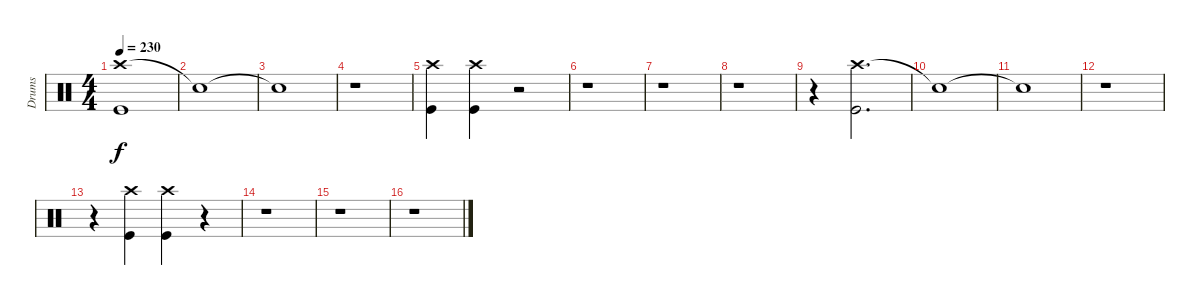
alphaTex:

\track ("Drums" "Drums") {instrument percussion}
\staff {score}
\articulation defaults
\ts (4 4)
\tempo 230
\clef neutral
\ks c
("Crash high (hit)" "Kick (hit)").1{dy f} |
"Snare (hit)"{t}.1 |
"Snare (hit)"{t}.1 |
r.1 |
("Crash high (hit)" "Kick (hit)").4 ("Crash high (hit)" "Kick (hit)").4 r.2 |
r.1 |
r.1 |
r.1 |
r.4 ("Crash high (hit)" "Kick (hit)").2{d} |
"Snare (hit)"{t}.1 |
"Snare (hit)"{t}.1 |
r.1 |
r.4 ("Crash high (hit)" "Kick (hit)").4 ("Crash high (hit)" "Kick (hit)").4 r.4 |
r.1 |
r.1 |
r.1
